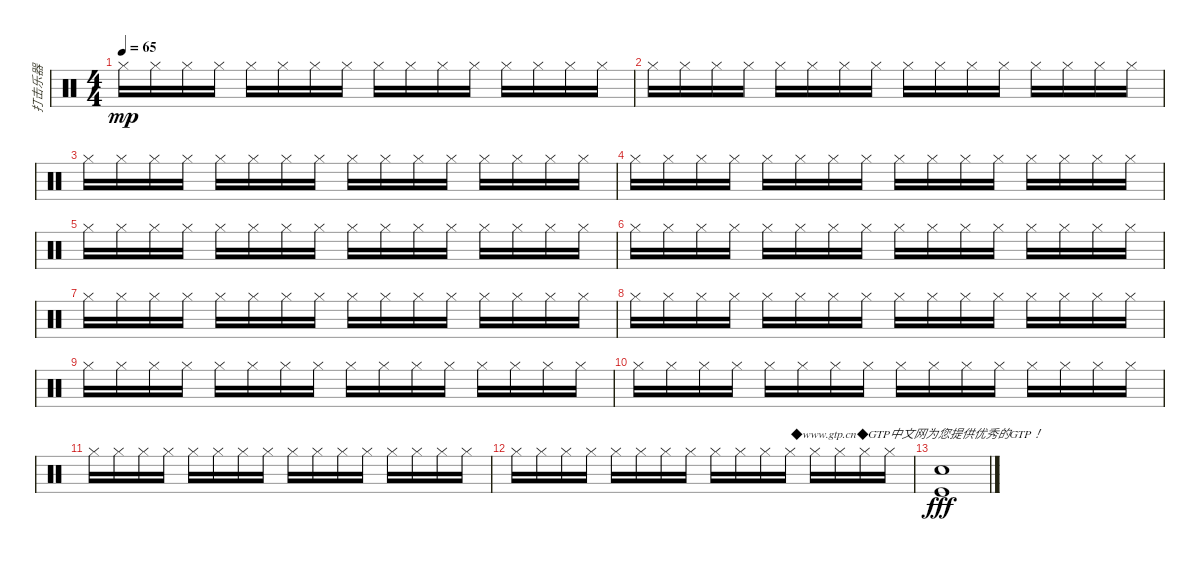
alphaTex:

\track ("打击乐器" "打击乐器") {instrument percussion}
\staff {score}
\articulation defaults
\ts (4 4)
\tempo 65
\clef neutral
\ks c "Hi-Hat (closed)".16{dy mp volume 9} "Hi-Hat (closed)".16 "Hi-Hat (closed)".16 "Hi-Hat (closed)".16 "Hi-Hat (closed)".16 "Hi-Hat (closed)".16 "Hi-Hat (closed)".16{volume 10} "Hi-Hat (closed)".16 "Hi-Hat (closed)".16 "Hi-Hat (closed)".16 "Hi-Hat (closed)".16 "Hi-Hat (closed)".16 "Hi-Hat (closed)".16 "Hi-Hat (closed)".16 "Hi-Hat (closed)".16 "Hi-Hat (closed)".16
|
"Hi-Hat (closed)".16{volume 9} "Hi-Hat (closed)".16 "Hi-Hat (closed)".16 "Hi-Hat (closed)".16 "Hi-Hat (closed)".16 "Hi-Hat (closed)".16 "Hi-Hat (closed)".16{volume 10} "Hi-Hat (closed)".16 "Hi-Hat (closed)".16 "Hi-Hat (closed)".16 "Hi-Hat (closed)".16 "Hi-Hat (closed)".16 "Hi-Hat (closed)".16 "Hi-Hat (closed)".16 "Hi-Hat (closed)".16 "Hi-Hat (closed)".16 |
"Hi-Hat (closed)".16{volume 9} "Hi-Hat (closed)".16 "Hi-Hat (closed)".16 "Hi-Hat (closed)".16 "Hi-Hat (closed)".16 "Hi-Hat (closed)".16 "Hi-Hat (closed)".16{volume 10} "Hi-Hat (closed)".16 "Hi-Hat (closed)".16 "Hi-Hat (closed)".16 "Hi-Hat (closed)".16 "Hi-Hat (closed)".16 "Hi-Hat (closed)".16 "Hi-Hat (closed)".16 "Hi-Hat (closed)".16 "Hi-Hat (closed)".16 |
"Hi-Hat (closed)".16{volume 9} "Hi-Hat (closed)".16 "Hi-Hat (closed)".16 "Hi-Hat (closed)".16 "Hi-Hat (closed)".16 "Hi-Hat (closed)".16 "Hi-Hat (closed)".16{volume 10} "Hi-Hat (closed)".16 "Hi-Hat (closed)".16 "Hi-Hat (closed)".16 "Hi-Hat (closed)".16 "Hi-Hat (closed)".16 "Hi-Hat (closed)".16 "Hi-Hat (closed)".16 "Hi-Hat (closed)".16 "Hi-Hat (closed)".16 |
"Hi-Hat (closed)".16{volume 9} "Hi-Hat (closed)".16 "Hi-Hat (closed)".16 "Hi-Hat (closed)".16 "Hi-Hat (closed)".16 "Hi-Hat (closed)".16 "Hi-Hat (closed)".16{volume 10} "Hi-Hat (closed)".16 "Hi-Hat (closed)".16 "Hi-Hat (closed)".16 "Hi-Hat (closed)".16 "Hi-Hat (closed)".16 "Hi-Hat (closed)".16 "Hi-Hat (closed)".16 "Hi-Hat (closed)".16 "Hi-Hat (closed)".16 |
"Hi-Hat (closed)".16{volume 9} "Hi-Hat (closed)".16 "Hi-Hat (closed)".16 "Hi-Hat (closed)".16 "Hi-Hat (closed)".16 "Hi-Hat (closed)".16 "Hi-Hat (closed)".16{volume 10} "Hi-Hat (closed)".16 "Hi-Hat (closed)".16 "Hi-Hat (closed)".16 "Hi-Hat (closed)".16 "Hi-Hat (closed)".16 "Hi-Hat (closed)".16 "Hi-Hat (closed)".16 "Hi-Hat (closed)".16 "Hi-Hat (closed)".16 |
"Hi-Hat (closed)".16{volume 9} "Hi-Hat (closed)".16 "Hi-Hat (closed)".16 "Hi-Hat (closed)".16 "Hi-Hat (closed)".16 "Hi-Hat (closed)".16 "Hi-Hat (closed)".16{volume 10} "Hi-Hat (closed)".16 "Hi-Hat (closed)".16 "Hi-Hat (closed)".16 "Hi-Hat (closed)".16 "Hi-Hat (closed)".16 "Hi-Hat (closed)".16 "Hi-Hat (closed)".16 "Hi-Hat (closed)".16 "Hi-Hat (closed)".16 |
"Hi-Hat (closed)".16{volume 9} "Hi-Hat (closed)".16 "Hi-Hat (closed)".16 "Hi-Hat (closed)".16 "Hi-Hat (closed)".16 "Hi-Hat (closed)".16 "Hi-Hat (closed)".16{volume 10} "Hi-Hat (closed)".16 "Hi-Hat (closed)".16 "Hi-Hat (closed)".16 "Hi-Hat (closed)".16 "Hi-Hat (closed)".16 "Hi-Hat (closed)".16 "Hi-Hat (closed)".16 "Hi-Hat (closed)".16 "Hi-Hat (closed)".16 |
"Hi-Hat (closed)".16{volume 9} "Hi-Hat (closed)".16 "Hi-Hat (closed)".16 "Hi-Hat (closed)".16 "Hi-Hat (closed)".16 "Hi-Hat (closed)".16 "Hi-Hat (closed)".16{volume 10} "Hi-Hat (closed)".16 "Hi-Hat (closed)".16 "Hi-Hat (closed)".16 "Hi-Hat (closed)".16 "Hi-Hat (closed)".16 "Hi-Hat (closed)".16 "Hi-Hat (closed)".16 "Hi-Hat (closed)".16 "Hi-Hat (closed)".16 |
"Hi-Hat (closed)".16{volume 9} "Hi-Hat (closed)".16 "Hi-Hat (closed)".16 "Hi-Hat (closed)".16 "Hi-Hat (closed)".16 "Hi-Hat (closed)".16 "Hi-Hat (closed)".16{volume 10} "Hi-Hat (closed)".16 "Hi-Hat (closed)".16 "Hi-Hat (closed)".16 "Hi-Hat (closed)".16 "Hi-Hat (closed)".16 "Hi-Hat (closed)".16 "Hi-Hat (closed)".16 "Hi-Hat (closed)".16 "Hi-Hat (closed)".16 |
"Hi-Hat (closed)".16{volume 9} "Hi-Hat (closed)".16 "Hi-Hat (closed)".16 "Hi-Hat (closed)".16 "Hi-Hat (closed)".16 "Hi-Hat (closed)".16 "Hi-Hat (closed)".16{volume 10} "Hi-Hat (closed)".16 "Hi-Hat (closed)".16 "Hi-Hat (closed)".16 "Hi-Hat (closed)".16 "Hi-Hat (closed)".16 "Hi-Hat (closed)".16 "Hi-Hat (closed)".16 "Hi-Hat (closed)".16 "Hi-Hat (closed)".16 |
"Hi-Hat (closed)".16{volume 9} "Hi-Hat (closed)".16 "Hi-Hat (closed)".16 "Hi-Hat (closed)".16 "Hi-Hat (closed)".16 "Hi-Hat (closed)".16 "Hi-Hat (closed)".16{volume 10} "Hi-Hat (closed)".16 "Hi-Hat (closed)".16 "Hi-Hat (closed)".16 "Hi-Hat (closed)".16 "Hi-Hat (closed)".16{txt "◆www.gtp.cn◆GTP中文网为您提供优秀的GTP！"} "Hi-Hat (closed)".16 "Hi-Hat (closed)".16 "Hi-Hat (closed)".16 "Hi-Hat (closed)".16 |
("Snare (hit) 2" "Kick (hit)").1{dy fff}
